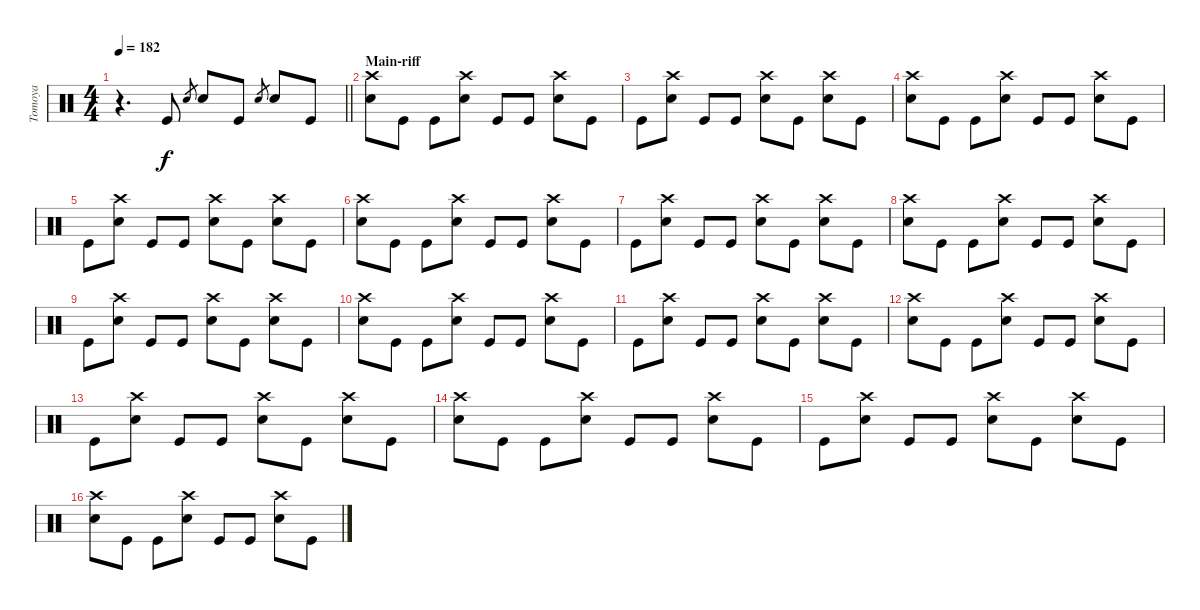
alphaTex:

\track ("Tomoya" "Tomoya") {instrument percussion}
\staff {score}
\articulation defaults
\ts (4 4)
\tempo 182
\clef neutral
\barLineRight lightlight
\ks c
r.4{d dy f} "Kick (hit)".8 "Snare (hit) 2".8{gr} "Snare (hit) 2".8 "Kick (hit)".8 "Snare (hit) 2".8{gr} "Snare (hit) 2".8 "Kick (hit)".8 |
\section ("" "Main-riff")
("Crash high (hit)" "Snare (hit) 2").8 "Kick (hit)".8 "Kick (hit)".8 ("Crash high (hit)" "Snare (hit) 2").8 "Kick (hit)".8 "Kick (hit)".8 ("Crash high (hit)" "Snare (hit) 2").8 "Kick (hit)".8 |
"Kick (hit)".8 ("Crash high (hit)" "Snare (hit) 2").8 "Kick (hit)".8 "Kick (hit)".8 ("Crash high (hit)" "Snare (hit) 2").8 "Kick (hit)".8 ("Crash high (hit)" "Snare (hit) 2").8 "Kick (hit)".8 |
("Crash high (hit)" "Snare (hit) 2").8 "Kick (hit)".8 "Kick (hit)".8 ("Crash high (hit)" "Snare (hit) 2").8 "Kick (hit)".8 "Kick (hit)".8 ("Crash high (hit)" "Snare (hit) 2").8 "Kick (hit)".8 |
"Kick (hit)".8 ("Crash high (hit)" "Snare (hit) 2").8 "Kick (hit)".8 "Kick (hit)".8 ("Crash high (hit)" "Snare (hit) 2").8 "Kick (hit)".8 ("Crash high (hit)" "Snare (hit) 2").8 "Kick (hit)".8 |
("Crash high (hit)" "Snare (hit) 2").8 "Kick (hit)".8 "Kick (hit)".8 ("Crash high (hit)" "Snare (hit) 2").8 "Kick (hit)".8 "Kick (hit)".8 ("Crash high (hit)" "Snare (hit) 2").8 "Kick (hit)".8 |
"Kick (hit)".8 ("Crash high (hit)" "Snare (hit) 2").8 "Kick (hit)".8 "Kick (hit)".8 ("Crash high (hit)" "Snare (hit) 2").8 "Kick (hit)".8 ("Crash high (hit)" "Snare (hit) 2").8 "Kick (hit)".8 |
("Crash high (hit)" "Snare (hit) 2").8 "Kick (hit)".8 "Kick (hit)".8 ("Crash high (hit)" "Snare (hit) 2").8 "Kick (hit)".8 "Kick (hit)".8 ("Crash high (hit)" "Snare (hit) 2").8 "Kick (hit)".8 |
"Kick (hit)".8 ("Crash high (hit)" "Snare (hit) 2").8 "Kick (hit)".8 "Kick (hit)".8 ("Crash high (hit)" "Snare (hit) 2").8 "Kick (hit)".8 ("Crash high (hit)" "Snare (hit) 2").8 "Kick (hit)".8 |
("Crash high (hit)" "Snare (hit) 2").8 "Kick (hit)".8 "Kick (hit)".8 ("Crash high (hit)" "Snare (hit) 2").8 "Kick (hit)".8 "Kick (hit)".8 ("Crash high (hit)" "Snare (hit) 2").8 "Kick (hit)".8 |
"Kick (hit)".8 ("Crash high (hit)" "Snare (hit) 2").8 "Kick (hit)".8 "Kick (hit)".8 ("Crash high (hit)" "Snare (hit) 2").8 "Kick (hit)".8 ("Crash high (hit)" "Snare (hit) 2").8 "Kick (hit)".8 |
("Crash high (hit)" "Snare (hit) 2").8 "Kick (hit)".8 "Kick (hit)".8 ("Crash high (hit)" "Snare (hit) 2").8 "Kick (hit)".8 "Kick (hit)".8 ("Crash high (hit)" "Snare (hit) 2").8 "Kick (hit)".8 |
"Kick (hit)".8 ("Crash high (hit)" "Snare (hit) 2").8 "Kick (hit)".8 "Kick (hit)".8 ("Crash high (hit)" "Snare (hit) 2").8 "Kick (hit)".8 ("Crash high (hit)" "Snare (hit) 2").8 "Kick (hit)".8 |
("Crash high (hit)" "Snare (hit) 2").8 "Kick (hit)".8 "Kick (hit)".8 ("Crash high (hit)" "Snare (hit) 2").8 "Kick (hit)".8 "Kick (hit)".8 ("Crash high (hit)" "Snare (hit) 2").8 "Kick (hit)".8 |
"Kick (hit)".8 ("Crash high (hit)" "Snare (hit) 2").8 "Kick (hit)".8 "Kick (hit)".8 ("Crash high (hit)" "Snare (hit) 2").8 "Kick (hit)".8 ("Crash high (hit)" "Snare (hit) 2").8 "Kick (hit)".8 |
("Crash high (hit)" "Snare (hit) 2").8 "Kick (hit)".8 "Kick (hit)".8 ("Crash high (hit)" "Snare (hit) 2").8 "Kick (hit)".8 "Kick (hit)".8 ("Crash high (hit)" "Snare (hit) 2").8 "Kick (hit)".8
